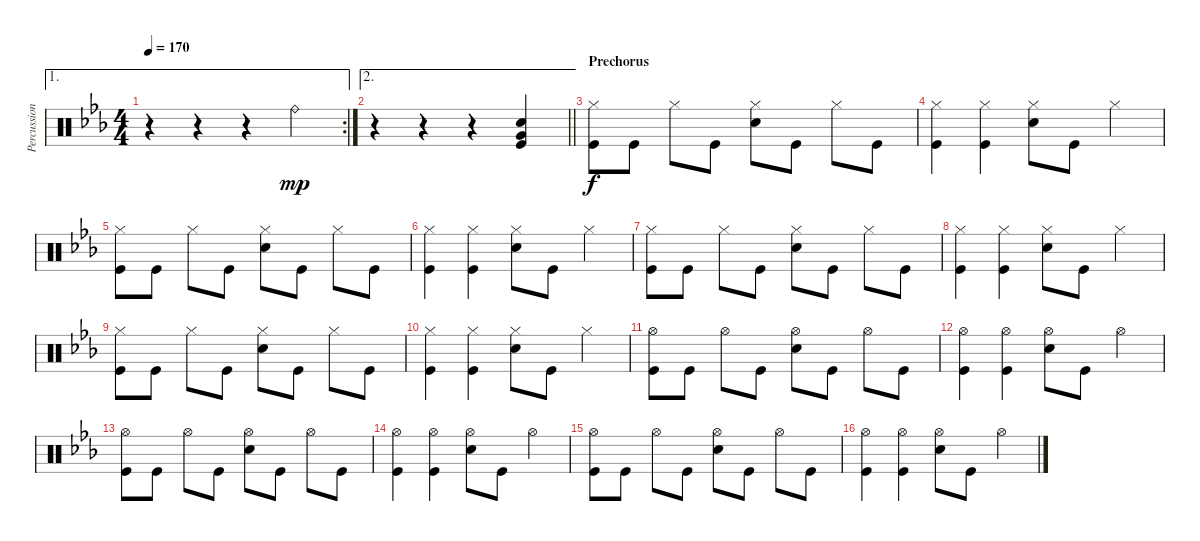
\track ("Percussion" "Percussion") {instrument percussion}
\staff {score}
\articulation defaults
\ae 1
\rc 2
\ts (4 4)
\tempo 170
\clef neutral
\ks eb
r.4{dy mp} r.4 r.4 "Ride (bell)".4 |
\ae 2
\barLineRight lightlight
r.4 r.4 r.4 ("Snare (hit) 2" "Very Low Tom (hit)" "Kick (hit)").4 |
\section ("" "Prechorus")
("Kick (hit)" "Hi-Hat (closed)").8{dy f} "Kick (hit)".8 "Hi-Hat (closed)".8 "Kick (hit)".8 ("Snare (hit) 2" "Hi-Hat (closed)").8 "Kick (hit)".8 "Hi-Hat (closed)".8 "Kick (hit)".8 |
("Hi-Hat (closed)" "Kick (hit)").4 ("Kick (hit)" "Hi-Hat (closed)").4 ("Snare (hit) 2" "Hi-Hat (closed)").8 "Kick (hit)".8 "Hi-Hat (closed)".4 |
("Kick (hit)" "Hi-Hat (closed)").8 "Kick (hit)".8 "Hi-Hat (closed)".8 "Kick (hit)".8 ("Snare (hit) 2" "Hi-Hat (closed)").8 "Kick (hit)".8 "Hi-Hat (closed)".8 "Kick (hit)".8 |
("Hi-Hat (closed)" "Kick (hit)").4 ("Kick (hit)" "Hi-Hat (closed)").4 ("Snare (hit) 2" "Hi-Hat (closed)").8 "Kick (hit)".8 "Hi-Hat (closed)".4 |
("Kick (hit)" "Hi-Hat (closed)").8 "Kick (hit)".8 "Hi-Hat (closed)".8 "Kick (hit)".8 ("Snare (hit) 2" "Hi-Hat (closed)").8 "Kick (hit)".8 "Hi-Hat (closed)".8 "Kick (hit)".8 |
("Hi-Hat (closed)" "Kick (hit)").4 ("Kick (hit)" "Hi-Hat (closed)").4 ("Snare (hit) 2" "Hi-Hat (closed)").8 "Kick (hit)".8 "Hi-Hat (closed)".4 |
("Kick (hit)" "Hi-Hat (closed)").8 "Kick (hit)".8 "Hi-Hat (closed)".8 "Kick (hit)".8 ("Snare (hit) 2" "Hi-Hat (closed)").8 "Kick (hit)".8 "Hi-Hat (closed)".8 "Kick (hit)".8 |
("Hi-Hat (closed)" "Kick (hit)").4 ("Kick (hit)" "Hi-Hat (closed)").4 ("Snare (hit) 2" "Hi-Hat (closed)").8 "Kick (hit)".8 "Hi-Hat (closed)".4 |
("Kick (hit)" "Hi-Hat (open)").8 "Kick (hit)".8 "Hi-Hat (open)".8 "Kick (hit)".8 ("Snare (hit) 2" "Hi-Hat (open)").8 "Kick (hit)".8 "Hi-Hat (open)".8 "Kick (hit)".8 |
("Hi-Hat (open)" "Kick (hit)").4 ("Kick (hit)" "Hi-Hat (open)").4 ("Snare (hit) 2" "Hi-Hat (open)").8 "Kick (hit)".8 "Hi-Hat (open)".4 |
("Kick (hit)" "Hi-Hat (open)").8 "Kick (hit)".8 "Hi-Hat (open)".8 "Kick (hit)".8 ("Snare (hit) 2" "Hi-Hat (open)").8 "Kick (hit)".8 "Hi-Hat (open)".8 "Kick (hit)".8 |
("Hi-Hat (open)" "Kick (hit)").4 ("Kick (hit)" "Hi-Hat (open)").4 ("Snare (hit) 2" "Hi-Hat (open)").8 "Kick (hit)".8 "Hi-Hat (open)".4 |
("Kick (hit)" "Hi-Hat (open)").8 "Kick (hit)".8 "Hi-Hat (open)".8 "Kick (hit)".8 ("Snare (hit) 2" "Hi-Hat (open)").8 "Kick (hit)".8 "Hi-Hat (open)".8 "Kick (hit)".8 |
("Hi-Hat (open)" "Kick (hit)").4 ("Kick (hit)" "Hi-Hat (open)").4 ("Snare (hit) 2" "Hi-Hat (open)").8 "Kick (hit)".8 "Hi-Hat (open)".4
